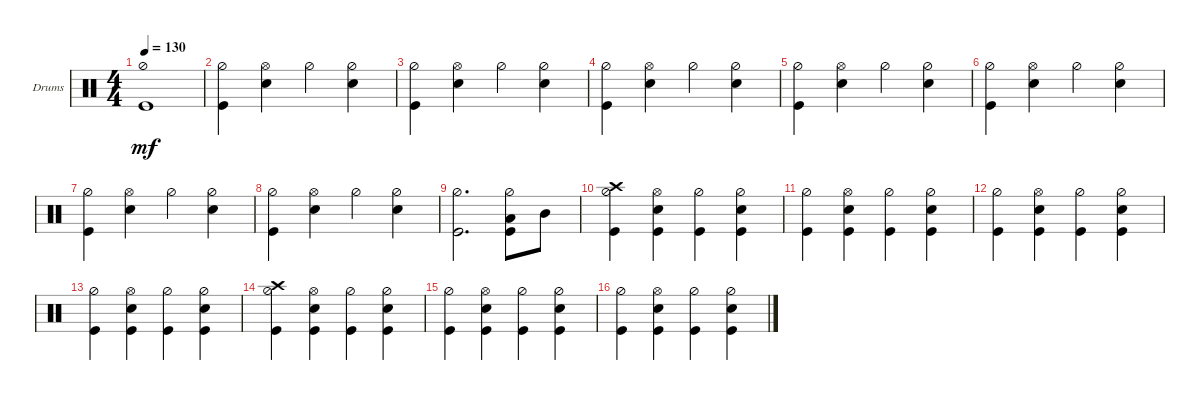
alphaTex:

\defaultSystemsLayout 4
\bracketExtendMode groupsimilarinstruments
\firstSystemTrackNameOrientation horizontal
\otherSystemsTrackNameOrientation horizontal
\track ("Drumkit" "Drums") {instrument percussion}
\staff {score}
\articulation defaults
\ts (4 4)
\tempo 130
\clef neutral
\ks c
("Hi-Hat (half)" "Kick (hit)").1{dy mf} |
("Hi-Hat (half)" "Kick (hit)").4 ("Snare (hit) 2" "Hi-Hat (open)").4 "Hi-Hat (half)".4 ("Snare (hit) 2" "Hi-Hat (half)").4 |
("Hi-Hat (half)" "Kick (hit)").4 ("Snare (hit) 2" "Hi-Hat (open)").4 "Hi-Hat (half)".4 ("Snare (hit) 2" "Hi-Hat (half)").4 |
("Hi-Hat (half)" "Kick (hit)").4 ("Snare (hit) 2" "Hi-Hat (open)").4 "Hi-Hat (half)".4 ("Snare (hit) 2" "Hi-Hat (half)").4 |
("Hi-Hat (half)" "Kick (hit)").4 ("Snare (hit) 2" "Hi-Hat (open)").4 "Hi-Hat (half)".4 ("Snare (hit) 2" "Hi-Hat (half)").4 |
("Hi-Hat (half)" "Kick (hit)").4 ("Snare (hit) 2" "Hi-Hat (open)").4 "Hi-Hat (half)".4 ("Snare (hit) 2" "Hi-Hat (half)").4 |
("Hi-Hat (half)" "Kick (hit)").4 ("Snare (hit) 2" "Hi-Hat (open)").4 "Hi-Hat (half)".4 ("Snare (hit) 2" "Hi-Hat (half)").4 |
("Hi-Hat (half)" "Kick (hit)").4 ("Snare (hit) 2" "Hi-Hat (open)").4 "Hi-Hat (half)".4 ("Snare (hit) 2" "Hi-Hat (half)").4 |
("Hi-Hat (half)" "Kick (hit)").2{d} ("Kick (hit)" "Hi-Hat (half)" "Low Tom (hit)").8 "Mid Tom (hit)".8 |
("Hi-Hat (half)" "Kick (hit)" "Crash high (hit)").4 ("Snare (hit) 2" "Hi-Hat (open)" "Kick (hit)").4 ("Hi-Hat (half)" "Kick (hit)").4 ("Snare (hit) 2" "Hi-Hat (half)" "Kick (hit)").4 |
("Hi-Hat (half)" "Kick (hit)").4 ("Snare (hit) 2" "Hi-Hat (open)" "Kick (hit)").4 ("Hi-Hat (half)" "Kick (hit)").4 ("Snare (hit) 2" "Hi-Hat (half)" "Kick (hit)").4 |
("Hi-Hat (half)" "Kick (hit)").4 ("Snare (hit) 2" "Hi-Hat (open)" "Kick (hit)").4 ("Hi-Hat (half)" "Kick (hit)").4 ("Snare (hit) 2" "Hi-Hat (half)" "Kick (hit)").4 |
("Hi-Hat (half)" "Kick (hit)").4 ("Snare (hit) 2" "Hi-Hat (open)" "Kick (hit)").4 ("Hi-Hat (half)" "Kick (hit)").4 ("Snare (hit) 2" "Hi-Hat (half)" "Kick (hit)").4 |
("Hi-Hat (half)" "Kick (hit)" "Crash high (hit)").4 ("Snare (hit) 2" "Hi-Hat (open)" "Kick (hit)").4 ("Hi-Hat (half)" "Kick (hit)").4 ("Snare (hit) 2" "Hi-Hat (half)" "Kick (hit)").4 |
("Hi-Hat (half)" "Kick (hit)").4 ("Snare (hit) 2" "Hi-Hat (open)" "Kick (hit)").4 ("Hi-Hat (half)" "Kick (hit)").4 ("Snare (hit) 2" "Hi-Hat (half)" "Kick (hit)").4 |
("Hi-Hat (half)" "Kick (hit)").4 ("Snare (hit) 2" "Hi-Hat (open)" "Kick (hit)").4 ("Hi-Hat (half)" "Kick (hit)").4 ("Snare (hit) 2" "Hi-Hat (half)" "Kick (hit)").4
